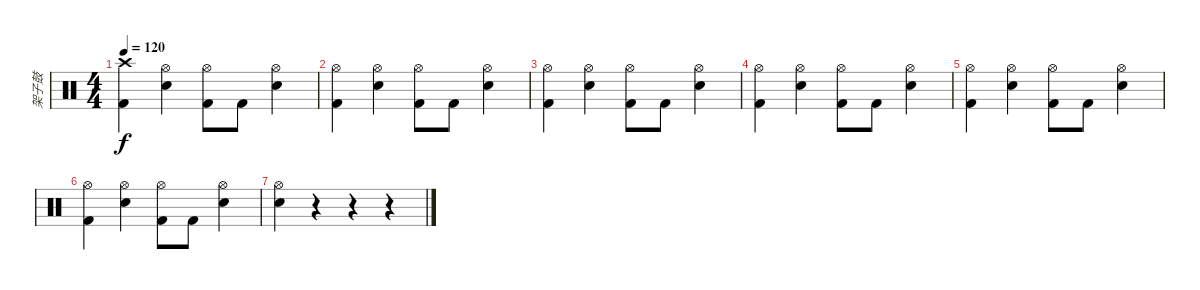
\track ("架子鼓" "架子鼓") {instrument percussion}
\staff {score}
\articulation defaults
\ts (4 4)
\tempo 120
\clef neutral
\ks c
("Crash high (hit)" "Kick (hit) 2").4{dy f} ("Hi-Hat (open)" "Snare (hit) 2").4 ("Hi-Hat (open)" "Kick (hit) 2").8 "Kick (hit) 2".8 ("Hi-Hat (open)" "Snare (hit) 2").4 |
("Hi-Hat (open)" "Kick (hit) 2").4 ("Hi-Hat (open)" "Snare (hit) 2").4 ("Hi-Hat (open)" "Kick (hit) 2").8 "Kick (hit) 2".8 ("Hi-Hat (open)" "Snare (hit) 2").4 |
("Hi-Hat (open)" "Kick (hit) 2").4 ("Hi-Hat (open)" "Snare (hit) 2").4 ("Hi-Hat (open)" "Kick (hit) 2").8 "Kick (hit) 2".8 ("Hi-Hat (open)" "Snare (hit) 2").4 |
("Hi-Hat (open)" "Kick (hit) 2").4 ("Hi-Hat (open)" "Snare (hit) 2").4 ("Hi-Hat (open)" "Kick (hit) 2").8 "Kick (hit) 2".8 ("Hi-Hat (open)" "Snare (hit) 2").4 |
("Hi-Hat (open)" "Kick (hit) 2").4 ("Hi-Hat (open)" "Snare (hit) 2").4 ("Hi-Hat (open)" "Kick (hit) 2").8 "Kick (hit) 2".8 ("Hi-Hat (open)" "Snare (hit) 2").4 |
("Hi-Hat (open)" "Kick (hit) 2").4 ("Hi-Hat (open)" "Snare (hit) 2").4 ("Hi-Hat (open)" "Kick (hit) 2").8 "Kick (hit) 2".8 ("Hi-Hat (open)" "Snare (hit) 2").4 |
("Hi-Hat (open)" "Snare (hit) 2").4 r.4 r.4 r.4
